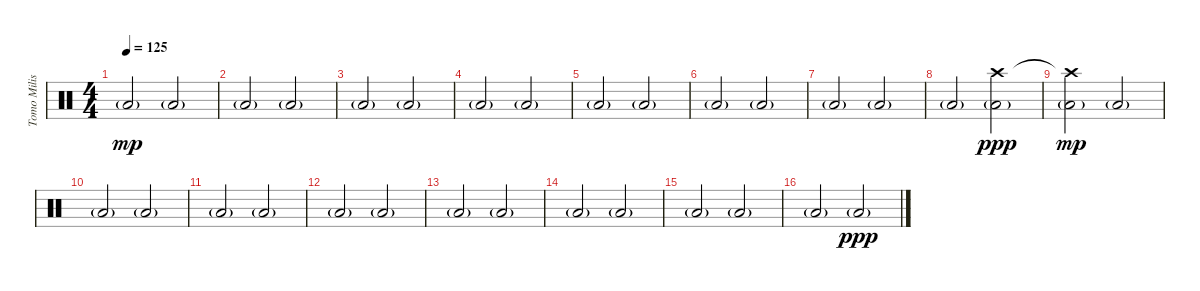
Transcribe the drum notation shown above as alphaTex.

\track ("Tomo Milisevic" "Tomo Milis") {instrument percussion}
\staff {score}
\articulation defaults
\ts (4 4)
\tempo 125
\clef neutral
\ks c "Low Floor Tom (hit)"{g}.2{dy mp} "Low Floor Tom (hit)"{g}.2
|
"Low Floor Tom (hit)"{g}.2 "Low Floor Tom (hit)"{g}.2 |
"Low Floor Tom (hit)"{g}.2 "Low Floor Tom (hit)"{g}.2 |
"Low Floor Tom (hit)"{g}.2 "Low Floor Tom (hit)"{g}.2 |
"Low Floor Tom (hit)"{g}.2 "Low Floor Tom (hit)"{g}.2 |
"Low Floor Tom (hit)"{g}.2 "Low Floor Tom (hit)"{g}.2 |
"Low Floor Tom (hit)"{g}.2 "Low Floor Tom (hit)"{g}.2 |
"Low Floor Tom (hit)"{g}.2 ("Crash high (hit)" "Low Floor Tom (hit)"{g}).2{dy ppp} |
("Crash high (hit)"{t} "Low Floor Tom (hit)"{g}).2{dy mp} "Low Floor Tom (hit)"{g}.2 |
"Low Floor Tom (hit)"{g}.2 "Low Floor Tom (hit)"{g}.2 |
"Low Floor Tom (hit)"{g}.2 "Low Floor Tom (hit)"{g}.2 |
"Low Floor Tom (hit)"{g}.2 "Low Floor Tom (hit)"{g}.2 |
"Low Floor Tom (hit)"{g}.2 "Low Floor Tom (hit)"{g}.2 |
"Low Floor Tom (hit)"{g}.2 "Low Floor Tom (hit)"{g}.2 |
"Low Floor Tom (hit)"{g}.2 "Low Floor Tom (hit)"{g}.2 |
"Low Floor Tom (hit)"{g}.2 "Low Floor Tom (hit)"{g}.2{dy ppp}
